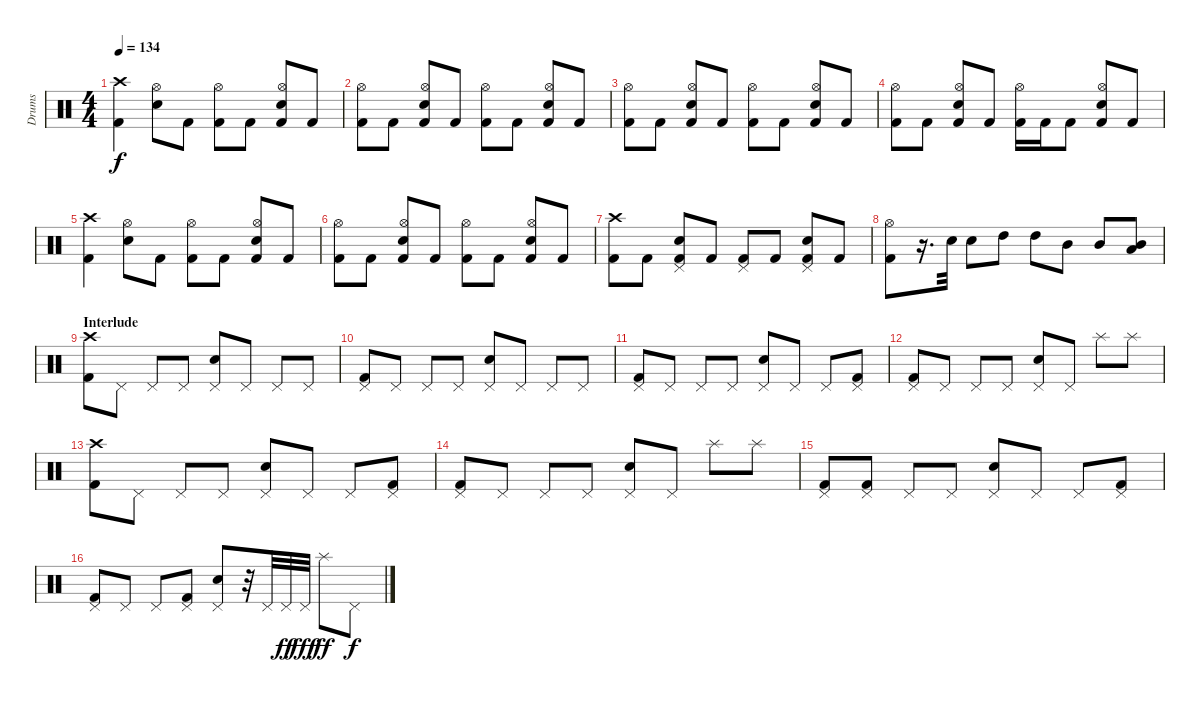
\track ("Drums" "Drums") {instrument percussion}
\staff {score}
\articulation defaults
\ts (4 4)
\section ("" "")
\tempo 134
\clef neutral
\ks c
("Crash high (hit)" "Kick (hit) 2").4{dy f} ("Hi-Hat (open)" "Snare (hit) 2").8 "Kick (hit) 2".8 ("Hi-Hat (open)" "Kick (hit) 2").8 "Kick (hit) 2".8 ("Hi-Hat (open)" "Snare (hit) 2" "Kick (hit) 2").8 "Kick (hit) 2".8 |
("Hi-Hat (open)" "Kick (hit) 2").8 "Kick (hit) 2".8 ("Hi-Hat (open)" "Snare (hit) 2" "Kick (hit) 2").8 "Kick (hit) 2".8 ("Hi-Hat (open)" "Kick (hit) 2").8 "Kick (hit) 2".8 ("Hi-Hat (open)" "Snare (hit) 2" "Kick (hit) 2").8 "Kick (hit) 2".8 |
("Hi-Hat (open)" "Kick (hit) 2").8 "Kick (hit) 2".8 ("Hi-Hat (open)" "Snare (hit) 2" "Kick (hit) 2").8 "Kick (hit) 2".8 ("Hi-Hat (open)" "Kick (hit) 2").8 "Kick (hit) 2".8 ("Hi-Hat (open)" "Snare (hit) 2" "Kick (hit) 2").8 "Kick (hit) 2".8 |
("Hi-Hat (open)" "Kick (hit) 2").8 "Kick (hit) 2".8 ("Hi-Hat (open)" "Snare (hit) 2" "Kick (hit) 2").8 "Kick (hit) 2".8 ("Hi-Hat (open)" "Kick (hit) 2").16 "Kick (hit) 2".16 "Kick (hit) 2".8 ("Hi-Hat (open)" "Snare (hit) 2" "Kick (hit) 2").8 "Kick (hit) 2".8 |
("Crash high (hit)" "Kick (hit) 2").4 ("Hi-Hat (open)" "Snare (hit) 2").8 "Kick (hit) 2".8 ("Hi-Hat (open)" "Kick (hit) 2").8 "Kick (hit) 2".8 ("Hi-Hat (open)" "Snare (hit) 2" "Kick (hit) 2").8 "Kick (hit) 2".8 |
("Hi-Hat (open)" "Kick (hit) 2").8 "Kick (hit) 2".8 ("Hi-Hat (open)" "Snare (hit) 2" "Kick (hit) 2").8 "Kick (hit) 2".8 ("Hi-Hat (open)" "Kick (hit) 2").8 "Kick (hit) 2".8 ("Hi-Hat (open)" "Snare (hit) 2" "Kick (hit) 2").8 "Kick (hit) 2".8 |
("Crash high (hit)" "Kick (hit) 2").8 "Kick (hit) 2".8 ("Pedal Hi-Hat (hit)" "Snare (hit) 2" "Kick (hit) 2").8 "Kick (hit) 2".8 ("Pedal Hi-Hat (hit)" "Kick (hit) 2").8 "Kick (hit) 2".8 ("Pedal Hi-Hat (hit)" "Snare (hit) 2" "Kick (hit) 2").8 "Kick (hit) 2".8 |
("Hi-Hat (open)" "Kick (hit) 2").8 r.16{d} "Snare (hit) 2".32 "Snare (hit) 2".8 "High Tom (hit)".8 "High Tom (hit)".8 "Mid Tom (hit)".8 "Mid Tom (hit)".8 ("Low Tom (hit)" "Mid Tom (hit)").8 |
\section ("" "Interlude")
("Crash high (hit)" "Kick (hit) 2").8 "Pedal Hi-Hat (hit)".8 "Pedal Hi-Hat (hit)".8 "Pedal Hi-Hat (hit)".8 ("Pedal Hi-Hat (hit)" "Snare (hit) 2").8 "Pedal Hi-Hat (hit)".8 "Pedal Hi-Hat (hit)".8 "Pedal Hi-Hat (hit)".8 |
("Pedal Hi-Hat (hit)" "Kick (hit) 2").8 "Pedal Hi-Hat (hit)".8 "Pedal Hi-Hat (hit)".8 "Pedal Hi-Hat (hit)".8 ("Pedal Hi-Hat (hit)" "Snare (hit) 2").8 "Pedal Hi-Hat (hit)".8 "Pedal Hi-Hat (hit)".8 "Pedal Hi-Hat (hit)".8 |
("Pedal Hi-Hat (hit)" "Kick (hit) 2").8 "Pedal Hi-Hat (hit)".8 "Pedal Hi-Hat (hit)".8 "Pedal Hi-Hat (hit)".8 ("Pedal Hi-Hat (hit)" "Snare (hit) 2").8 "Pedal Hi-Hat (hit)".8 "Pedal Hi-Hat (hit)".8 ("Pedal Hi-Hat (hit)" "Kick (hit) 2").8 |
("Pedal Hi-Hat (hit)" "Kick (hit) 2").8 "Pedal Hi-Hat (hit)".8 "Pedal Hi-Hat (hit)".8 "Pedal Hi-Hat (hit)".8 ("Pedal Hi-Hat (hit)" "Snare (hit) 2").8 "Pedal Hi-Hat (hit)".8 "Splash (hit)".8 "Splash (hit)".8 |
("Crash high (hit)" "Kick (hit) 2").8 "Pedal Hi-Hat (hit)".8 "Pedal Hi-Hat (hit)".8 "Pedal Hi-Hat (hit)".8 ("Pedal Hi-Hat (hit)" "Snare (hit) 2").8 "Pedal Hi-Hat (hit)".8 "Pedal Hi-Hat (hit)".8 ("Pedal Hi-Hat (hit)" "Kick (hit) 2").8 |
("Pedal Hi-Hat (hit)" "Kick (hit) 2").8 "Pedal Hi-Hat (hit)".8 "Pedal Hi-Hat (hit)".8 "Pedal Hi-Hat (hit)".8 ("Pedal Hi-Hat (hit)" "Snare (hit) 2").8 "Pedal Hi-Hat (hit)".8 "Splash (hit)".8 "Splash (hit)".8 |
("Pedal Hi-Hat (hit)" "Kick (hit) 2").8 ("Pedal Hi-Hat (hit)" "Kick (hit) 2").8 "Pedal Hi-Hat (hit)".8 "Pedal Hi-Hat (hit)".8 ("Pedal Hi-Hat (hit)" "Snare (hit) 2").8 "Pedal Hi-Hat (hit)".8 "Pedal Hi-Hat (hit)".8 ("Pedal Hi-Hat (hit)" "Kick (hit) 2").8 |
("Pedal Hi-Hat (hit)" "Kick (hit) 2").8 "Pedal Hi-Hat (hit)".8 "Pedal Hi-Hat (hit)".8 ("Pedal Hi-Hat (hit)" "Kick (hit) 2").8 ("Pedal Hi-Hat (hit)" "Snare (hit) 2").8 r.32 "Pedal Hi-Hat (hit)".32 "Pedal Hi-Hat (hit)".32{dy ff} "Pedal Hi-Hat (hit)".32{dy fff} "Splash (hit)".8{dy ff} "Pedal Hi-Hat (hit)".8{dy f}
